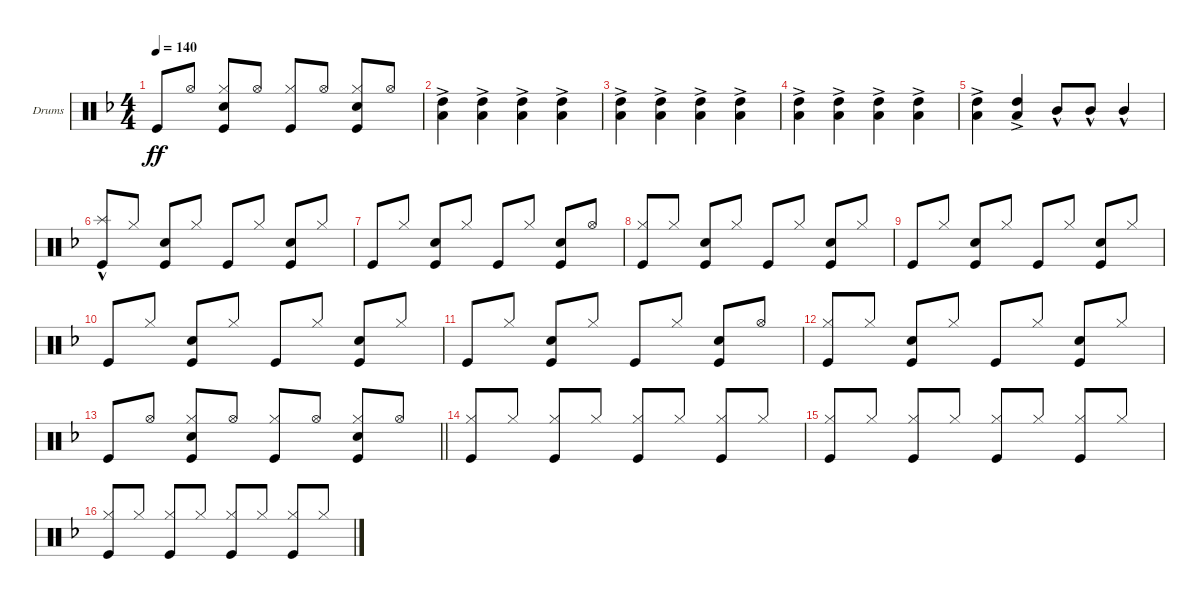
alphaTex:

\defaultSystemsLayout 4
\bracketExtendMode groupsimilarinstruments
\firstSystemTrackNameOrientation horizontal
\otherSystemsTrackNameOrientation horizontal
\track ("Drumkit" "Drums") {instrument percussion}
\staff {score}
\articulation defaults
\ts (4 4)
\tempo 140
\clef neutral
\ks f "Kick (hit)".8{dy ff beam invert} "Hi-Hat (open)".8
("Snare (hit) 2" "Hi-Hat (closed)" "Kick (hit)").8{beam invert} "Hi-Hat (open)".8 ("Kick (hit)" "Hi-Hat (closed)").8{beam invert} "Hi-Hat (open)".8 ("Snare (hit) 2" "Hi-Hat (closed)" "Kick (hit)").8{beam invert} "Hi-Hat (open)".8 |
("Low Tom (hit)"{ac} "High Tom (hit)"{ac}).4 ("Low Tom (hit)"{ac} "High Tom (hit)"{ac}).4 ("Low Tom (hit)"{ac} "High Tom (hit)"{ac}).4 ("Low Tom (hit)"{ac} "High Tom (hit)"{ac}).4 |
("Low Tom (hit)"{ac} "High Tom (hit)"{ac}).4 ("Low Tom (hit)"{ac} "High Tom (hit)"{ac}).4 ("Low Tom (hit)"{ac} "High Tom (hit)"{ac}).4 ("Low Tom (hit)"{ac} "High Tom (hit)"{ac}).4 |
("Low Tom (hit)"{ac} "High Tom (hit)"{ac}).4 ("Low Tom (hit)"{ac} "High Tom (hit)"{ac}).4 ("Low Tom (hit)"{ac} "High Tom (hit)"{ac}).4 ("Low Tom (hit)"{ac} "High Tom (hit)"{ac}).4 |
("Low Tom (hit)"{ac} "High Tom (hit)"{ac}).4 ("Low Tom (hit)"{ac} "High Tom (hit)"{ac}).4 "Mid Tom (hit)"{hac}.8{beam invert} "Mid Tom (hit)"{hac}.8 "Mid Tom (hit)"{hac}.4{beam invert} |
("Kick (hit)" "Splash (hit)"{hac}).8 "Hi-Hat (closed)".8 ("Snare (hit) 2" "Kick (hit)").8{beam invert} "Hi-Hat (closed)".8 "Kick (hit)".8{beam invert} "Hi-Hat (closed)".8 ("Snare (hit) 2" "Kick (hit)").8{beam invert} "Hi-Hat (closed)".8 |
"Kick (hit)".8{beam invert} "Hi-Hat (closed)".8 ("Snare (hit) 2" "Kick (hit)").8{beam invert} "Hi-Hat (closed)".8 "Kick (hit)".8{beam invert} "Hi-Hat (closed)".8 ("Snare (hit) 2" "Kick (hit)").8{beam invert} "Hi-Hat (open)".8 |
("Kick (hit)" "Hi-Hat (closed)").8{beam invert} "Hi-Hat (closed)".8 ("Snare (hit) 2" "Kick (hit)").8{beam invert} "Hi-Hat (closed)".8 "Kick (hit)".8{beam invert} "Hi-Hat (closed)".8 ("Snare (hit) 2" "Kick (hit)").8{beam invert} "Hi-Hat (closed)".8 |
"Kick (hit)".8{beam invert} "Hi-Hat (closed)".8 ("Snare (hit) 2" "Kick (hit)").8{beam invert} "Hi-Hat (closed)".8 "Kick (hit)".8{beam invert} "Hi-Hat (closed)".8 ("Snare (hit) 2" "Kick (hit)").8{beam invert} "Hi-Hat (closed)".8 |
"Kick (hit)".8{beam invert} "Hi-Hat (closed)".8 ("Snare (hit) 2" "Kick (hit)").8{beam invert} "Hi-Hat (closed)".8 "Kick (hit)".8{beam invert} "Hi-Hat (closed)".8 ("Snare (hit) 2" "Kick (hit)").8{beam invert} "Hi-Hat (closed)".8 |
"Kick (hit)".8{beam invert} "Hi-Hat (closed)".8 ("Snare (hit) 2" "Kick (hit)").8{beam invert} "Hi-Hat (closed)".8 "Kick (hit)".8{beam invert} "Hi-Hat (closed)".8 ("Snare (hit) 2" "Kick (hit)").8{beam invert} "Hi-Hat (open)".8 |
("Kick (hit)" "Hi-Hat (closed)").8{beam invert} "Hi-Hat (closed)".8 ("Snare (hit) 2" "Kick (hit)").8{beam invert} "Hi-Hat (closed)".8 "Kick (hit)".8{beam invert} "Hi-Hat (closed)".8 ("Snare (hit) 2" "Kick (hit)").8{beam invert} "Hi-Hat (closed)".8 |
\barLineRight lightlight "Kick (hit)".8{beam invert} "Hi-Hat (open)".8
("Snare (hit) 2" "Hi-Hat (closed)" "Kick (hit)").8{beam invert} "Hi-Hat (open)".8 ("Kick (hit)" "Hi-Hat (closed)").8{beam invert} "Hi-Hat (open)".8 ("Snare (hit) 2" "Hi-Hat (closed)" "Kick (hit)").8{beam invert} "Hi-Hat (open)".8 |
("Hi-Hat (closed)" "Kick (hit)").8{beam invert} "Hi-Hat (closed)".8 ("Hi-Hat (closed)" "Kick (hit)").8{beam invert} "Hi-Hat (closed)".8 ("Hi-Hat (closed)" "Kick (hit)").8{beam invert} "Hi-Hat (closed)".8 ("Hi-Hat (closed)" "Kick (hit)").8{beam invert} "Hi-Hat (closed)".8 |
("Hi-Hat (closed)" "Kick (hit)").8{beam invert} "Hi-Hat (closed)".8 ("Hi-Hat (closed)" "Kick (hit)").8{beam invert} "Hi-Hat (closed)".8 ("Hi-Hat (closed)" "Kick (hit)").8{beam invert} "Hi-Hat (closed)".8 ("Hi-Hat (closed)" "Kick (hit)").8{beam invert} "Hi-Hat (closed)".8 |
("Hi-Hat (closed)" "Kick (hit)").8{beam invert} "Hi-Hat (closed)".8 ("Hi-Hat (closed)" "Kick (hit)").8{beam invert} "Hi-Hat (closed)".8 ("Hi-Hat (closed)" "Kick (hit)").8{beam invert} "Hi-Hat (closed)".8 ("Hi-Hat (closed)" "Kick (hit)").8{beam invert} "Hi-Hat (closed)".8
